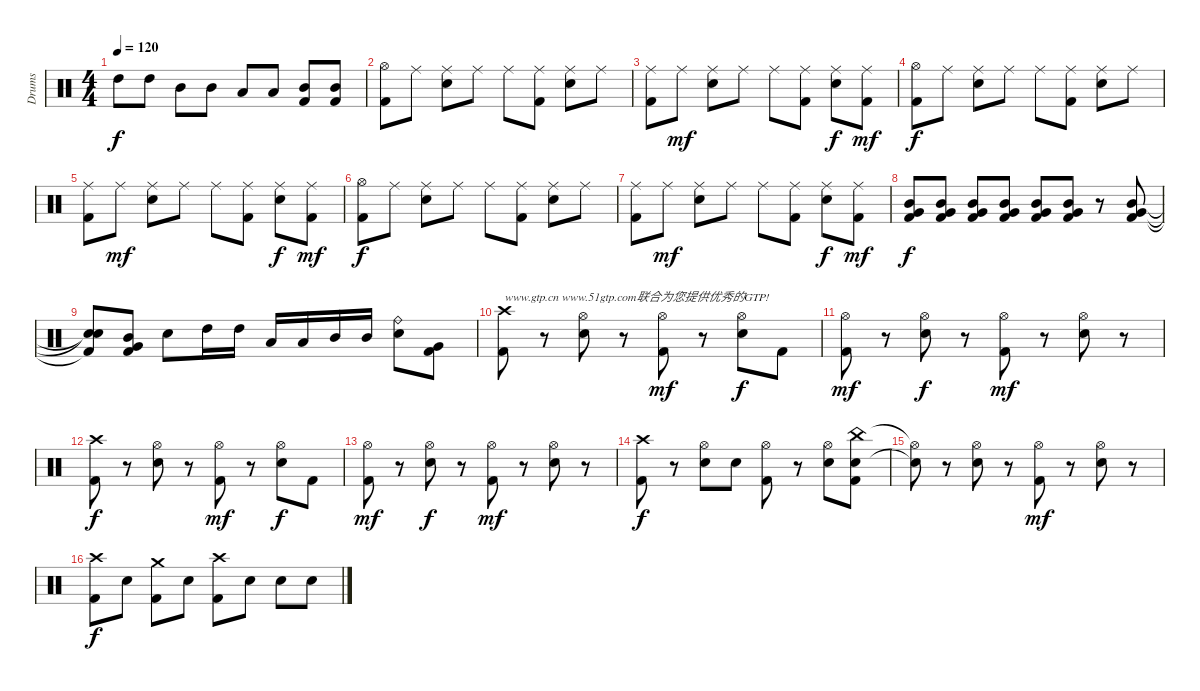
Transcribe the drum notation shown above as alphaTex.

\track ("Drums" "Drums") {instrument percussion}
\staff {score}
\articulation defaults
\ts (4 4)
\tempo 120
\clef neutral
\ks c "High Tom (hit)".8{dy f} "High Tom (hit)".8 "Mid Tom (hit)".8 "Mid Tom (hit)".8 "Low Tom (hit)".8 "Low Tom (hit)".8
("Mid Tom (hit)" "Kick (hit) 2").8 ("Mid Tom (hit)" "Kick (hit) 2").8 |
("Hi-Hat (open)" "Kick (hit) 2").8 "Ride (middle)".8 ("Ride (middle)" "Snare (hit) 2").8 "Ride (middle)".8 "Ride (middle)".8 ("Ride (middle)" "Kick (hit) 2").8 ("Ride (middle)" "Snare (hit) 2").8 "Ride (middle)".8 |
("Ride (middle)" "Kick (hit) 2").8 "Ride (middle)".8{dy mf} ("Ride (middle)" "Snare (hit) 2").8 "Ride (middle)".8 "Ride (middle)".8 ("Ride (middle)" "Kick (hit) 2").8 ("Ride (middle)" "Snare (hit) 2").8{dy f} ("Ride (middle)" "Kick (hit) 2").8{dy mf} |
("Hi-Hat (open)" "Kick (hit) 2").8{dy f} "Ride (middle)".8 ("Ride (middle)" "Snare (hit) 2").8 "Ride (middle)".8 "Ride (middle)".8 ("Ride (middle)" "Kick (hit) 2").8 ("Ride (middle)" "Snare (hit) 2").8 "Ride (middle)".8 |
("Ride (middle)" "Kick (hit) 2").8 "Ride (middle)".8{dy mf} ("Ride (middle)" "Snare (hit) 2").8 "Ride (middle)".8 "Ride (middle)".8 ("Ride (middle)" "Kick (hit) 2").8 ("Ride (middle)" "Snare (hit) 2").8{dy f} ("Ride (middle)" "Kick (hit) 2").8{dy mf} |
("Hi-Hat (open)" "Kick (hit) 2").8{dy f} "Ride (middle)".8 ("Ride (middle)" "Snare (hit) 2").8 "Ride (middle)".8 "Ride (middle)".8 ("Ride (middle)" "Kick (hit) 2").8 ("Ride (middle)" "Snare (hit) 2").8 "Ride (middle)".8 |
("Ride (middle)" "Kick (hit) 2").8 "Ride (middle)".8{dy mf} ("Ride (middle)" "Snare (hit) 2").8 "Ride (middle)".8 "Ride (middle)".8 ("Ride (middle)" "Kick (hit) 2").8 ("Ride (middle)" "Snare (hit) 2").8{dy f} ("Ride (middle)" "Kick (hit) 2").8{dy mf} |
("Mid Tom (hit)" "Very Low Tom (hit)" "Kick (hit) 2").8{dy f} ("Mid Tom (hit)" "Very Low Tom (hit)" "Kick (hit) 2").8 ("Mid Tom (hit)" "Very Low Tom (hit)" "Kick (hit) 2").8 ("Mid Tom (hit)" "Very Low Tom (hit)" "Kick (hit) 2").8 ("Mid Tom (hit)" "Very Low Tom (hit)" "Kick (hit) 2").8 ("Mid Tom (hit)" "Very Low Tom (hit)" "Kick (hit) 2").8 r.8 ("Mid Tom (hit)" "Very Low Tom (hit)" "Kick (hit) 2").8 |
("Snare (hit)"{t} "Snare (hit)"{t} "Kick (hit) 2"{t}).8 ("Mid Tom (hit)" "Very Low Tom (hit)" "Kick (hit) 2").8 "Snare (hit) 2".8 "High Tom (hit)".16 "High Tom (hit)".16 "Low Tom (hit)".16 "Low Tom (hit)".16 "Mid Tom (hit)".16 "Mid Tom (hit)".16 ("Ride (bell)" "Snare (hit) 2").8 ("Very Low Tom (hit)" "Kick (hit) 2").8 |
("Crash high (hit)" "Kick (hit) 2").8{txt "www.gtp.cn www.51gtp.com联合为您提供优秀的GTP!"} r.8 ("Hi-Hat (open)" "Snare (hit) 2").8 r.8 ("Hi-Hat (open)" "Kick (hit) 2").8{dy mf} r.8 ("Hi-Hat (open)" "Snare (hit) 2").8{dy f} "Kick (hit) 2".8 |
("Hi-Hat (open)" "Kick (hit) 2").8{dy mf} r.8 ("Hi-Hat (open)" "Snare (hit) 2").8{dy f} r.8 ("Hi-Hat (open)" "Kick (hit) 2").8{dy mf} r.8 ("Hi-Hat (open)" "Snare (hit) 2").8 r.8 |
("Crash high (hit)" "Kick (hit) 2").8{dy f} r.8 ("Hi-Hat (open)" "Snare (hit) 2").8 r.8 ("Hi-Hat (open)" "Kick (hit) 2").8{dy mf} r.8 ("Hi-Hat (open)" "Snare (hit) 2").8{dy f} "Kick (hit) 2".8 |
("Hi-Hat (open)" "Kick (hit) 2").8{dy mf} r.8 ("Hi-Hat (open)" "Snare (hit) 2").8{dy f} r.8 ("Hi-Hat (open)" "Kick (hit) 2").8{dy mf} r.8 ("Hi-Hat (open)" "Snare (hit) 2").8 r.8 |
("Crash high (hit)" "Kick (hit) 2").8{dy f} r.8 ("Hi-Hat (open)" "Snare (hit) 2").8 "Snare (hit) 2".8 ("Hi-Hat (open)" "Kick (hit) 2").8 r.8 ("Hi-Hat (open)" "Snare (hit) 2").8 ("China (hit)" "Snare (hit) 2" "Kick (hit) 2").8 |
("Hi-Hat (open)"{t} "Snare (hit)"{t}).8 r.8 ("Hi-Hat (open)" "Snare (hit) 2").8 r.8 ("Hi-Hat (open)" "Kick (hit) 2").8{dy mf} r.8 ("Hi-Hat (open)" "Snare (hit) 2").8 r.8 |
("Crash high (hit)" "Kick (hit) 2").8{dy f} "Snare (hit) 2".8 ("Crash medium (hit)" "Kick (hit) 2").8 "Snare (hit) 2".8 ("Crash high (hit)" "Kick (hit) 2").8 "Snare (hit) 2".8 "Snare (hit) 2".8 "Snare (hit) 2".8
